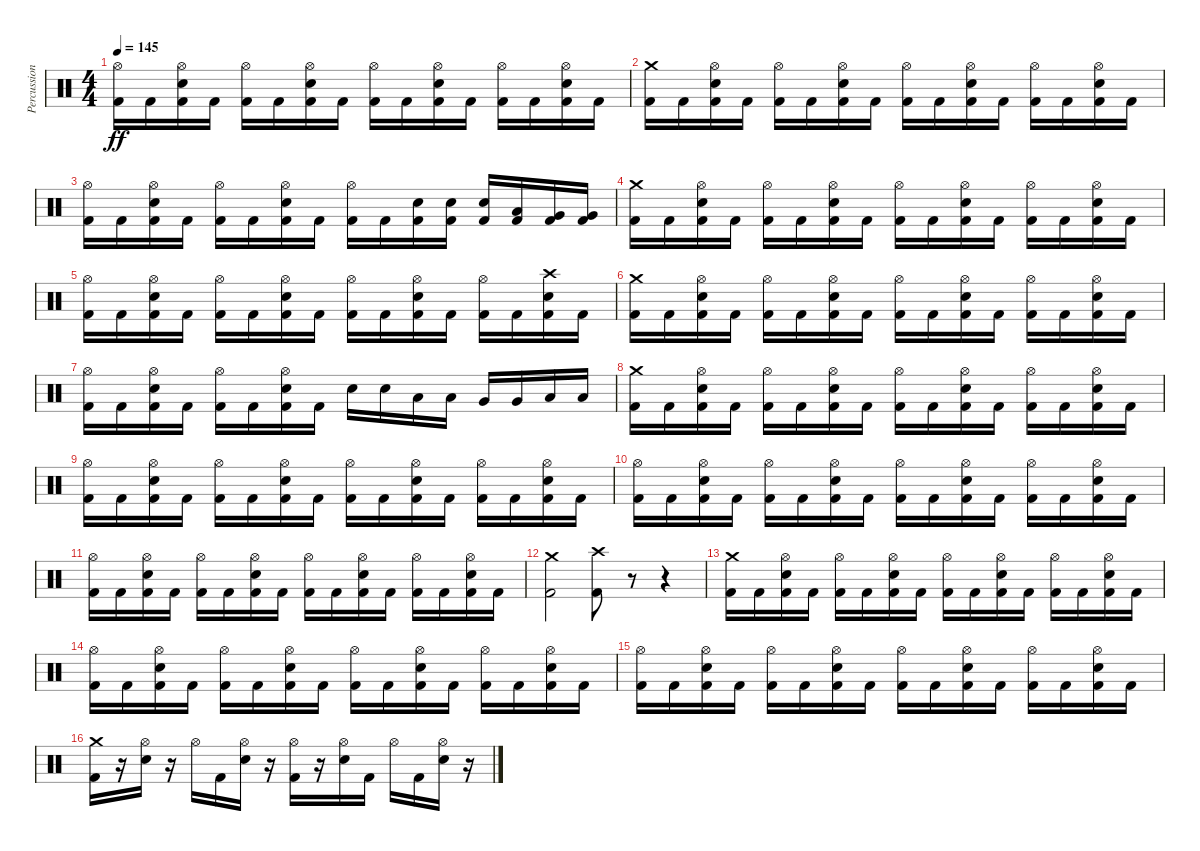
\track ("Percussion" "Percussion") {instrument percussion}
\staff {score}
\articulation defaults
\ts (4 4)
\tempo 145
\clef neutral
\ks c
("Hi-Hat (open)" "Kick (hit) 2").16{dy ff} "Kick (hit) 2".16 ("Electric Snare (hit)" "Hi-Hat (open)" "Kick (hit) 2").16 "Kick (hit) 2".16 ("Hi-Hat (open)" "Kick (hit) 2").16 "Kick (hit) 2".16 ("Electric Snare (hit)" "Hi-Hat (open)" "Kick (hit) 2").16 "Kick (hit) 2".16 ("Hi-Hat (open)" "Kick (hit) 2").16 "Kick (hit) 2".16 ("Electric Snare (hit)" "Hi-Hat (open)" "Kick (hit) 2").16 "Kick (hit) 2".16 ("Hi-Hat (open)" "Kick (hit) 2").16 "Kick (hit) 2".16 ("Electric Snare (hit)" "Hi-Hat (open)" "Kick (hit) 2").16 "Kick (hit) 2".16 |
("Crash medium (hit)" "Kick (hit) 2").16 "Kick (hit) 2".16 ("Electric Snare (hit)" "Hi-Hat (open)" "Kick (hit) 2").16 "Kick (hit) 2".16 ("Hi-Hat (open)" "Kick (hit) 2").16 "Kick (hit) 2".16 ("Electric Snare (hit)" "Hi-Hat (open)" "Kick (hit) 2").16 "Kick (hit) 2".16 ("Hi-Hat (open)" "Kick (hit) 2").16 "Kick (hit) 2".16 ("Electric Snare (hit)" "Hi-Hat (open)" "Kick (hit) 2").16 "Kick (hit) 2".16 ("Hi-Hat (open)" "Kick (hit) 2").16 "Kick (hit) 2".16 ("Electric Snare (hit)" "Hi-Hat (open)" "Kick (hit) 2").16 "Kick (hit) 2".16 |
("Hi-Hat (open)" "Kick (hit) 2").16 "Kick (hit) 2".16 ("Electric Snare (hit)" "Hi-Hat (open)" "Kick (hit) 2").16 "Kick (hit) 2".16 ("Hi-Hat (open)" "Kick (hit) 2").16 "Kick (hit) 2".16 ("Electric Snare (hit)" "Hi-Hat (open)" "Kick (hit) 2").16 "Kick (hit) 2".16 ("Hi-Hat (open)" "Kick (hit) 2").16 "Kick (hit) 2".16 ("Snare (hit) 2" "Kick (hit) 2").16 ("Snare (hit) 2" "Kick (hit) 2").16 ("Snare (hit) 2" "Kick (hit) 2").16 ("Low Tom (hit)" "Kick (hit) 2").16 ("Very Low Tom (hit)" "Kick (hit) 2").16 ("Very Low Tom (hit)" "Kick (hit) 2").16 |
("Crash medium (hit)" "Kick (hit) 2").16 "Kick (hit) 2".16 ("Electric Snare (hit)" "Hi-Hat (open)" "Kick (hit) 2").16 "Kick (hit) 2".16 ("Hi-Hat (open)" "Kick (hit) 2").16 "Kick (hit) 2".16 ("Electric Snare (hit)" "Hi-Hat (open)" "Kick (hit) 2").16 "Kick (hit) 2".16 ("Hi-Hat (open)" "Kick (hit) 2").16 "Kick (hit) 2".16 ("Electric Snare (hit)" "Hi-Hat (open)" "Kick (hit) 2").16 "Kick (hit) 2".16 ("Hi-Hat (open)" "Kick (hit) 2").16 "Kick (hit) 2".16 ("Electric Snare (hit)" "Hi-Hat (open)" "Kick (hit) 2").16 "Kick (hit) 2".16 |
("Hi-Hat (open)" "Kick (hit) 2").16 "Kick (hit) 2".16 ("Electric Snare (hit)" "Hi-Hat (open)" "Kick (hit) 2").16 "Kick (hit) 2".16 ("Hi-Hat (open)" "Kick (hit) 2").16 "Kick (hit) 2".16 ("Electric Snare (hit)" "Hi-Hat (open)" "Kick (hit) 2").16 "Kick (hit) 2".16 ("Hi-Hat (open)" "Kick (hit) 2").16 "Kick (hit) 2".16 ("Electric Snare (hit)" "Hi-Hat (open)" "Kick (hit) 2").16 "Kick (hit) 2".16 ("Hi-Hat (open)" "Kick (hit) 2").16 "Kick (hit) 2".16 ("Electric Snare (hit)" "Crash high (hit)" "Kick (hit) 2").16 "Kick (hit) 2".16 |
("Crash medium (hit)" "Kick (hit) 2").16 "Kick (hit) 2".16 ("Electric Snare (hit)" "Hi-Hat (open)" "Kick (hit) 2").16 "Kick (hit) 2".16 ("Hi-Hat (open)" "Kick (hit) 2").16 "Kick (hit) 2".16 ("Electric Snare (hit)" "Hi-Hat (open)" "Kick (hit) 2").16 "Kick (hit) 2".16 ("Hi-Hat (open)" "Kick (hit) 2").16 "Kick (hit) 2".16 ("Electric Snare (hit)" "Hi-Hat (open)" "Kick (hit) 2").16 "Kick (hit) 2".16 ("Hi-Hat (open)" "Kick (hit) 2").16 "Kick (hit) 2".16 ("Electric Snare (hit)" "Hi-Hat (open)" "Kick (hit) 2").16 "Kick (hit) 2".16 |
("Hi-Hat (open)" "Kick (hit) 2").16 "Kick (hit) 2".16 ("Electric Snare (hit)" "Hi-Hat (open)" "Kick (hit) 2").16 "Kick (hit) 2".16 ("Hi-Hat (open)" "Kick (hit) 2").16 "Kick (hit) 2".16 ("Electric Snare (hit)" "Hi-Hat (open)" "Kick (hit) 2").16 "Kick (hit) 2".16 "Snare (hit) 2".16 "Snare (hit) 2".16 "Low Tom (hit)".16 "Low Tom (hit)".16 "Very Low Tom (hit)".16 "Very Low Tom (hit)".16 "Low Floor Tom (hit)".16 "Low Floor Tom (hit)".16 |
("Crash medium (hit)" "Kick (hit) 2").16 "Kick (hit) 2".16 ("Electric Snare (hit)" "Hi-Hat (open)" "Kick (hit) 2").16 "Kick (hit) 2".16 ("Hi-Hat (open)" "Kick (hit) 2").16 "Kick (hit) 2".16 ("Electric Snare (hit)" "Hi-Hat (open)" "Kick (hit) 2").16 "Kick (hit) 2".16 ("Hi-Hat (open)" "Kick (hit) 2").16 "Kick (hit) 2".16 ("Electric Snare (hit)" "Hi-Hat (open)" "Kick (hit) 2").16 "Kick (hit) 2".16 ("Hi-Hat (open)" "Kick (hit) 2").16 "Kick (hit) 2".16 ("Electric Snare (hit)" "Hi-Hat (open)" "Kick (hit) 2").16 "Kick (hit) 2".16 |
("Hi-Hat (open)" "Kick (hit) 2").16 "Kick (hit) 2".16 ("Electric Snare (hit)" "Hi-Hat (open)" "Kick (hit) 2").16 "Kick (hit) 2".16 ("Hi-Hat (open)" "Kick (hit) 2").16 "Kick (hit) 2".16 ("Electric Snare (hit)" "Hi-Hat (open)" "Kick (hit) 2").16 "Kick (hit) 2".16 ("Hi-Hat (open)" "Kick (hit) 2").16 "Kick (hit) 2".16 ("Electric Snare (hit)" "Hi-Hat (open)" "Kick (hit) 2").16 "Kick (hit) 2".16 ("Hi-Hat (open)" "Kick (hit) 2").16 "Kick (hit) 2".16 ("Electric Snare (hit)" "Hi-Hat (open)" "Kick (hit) 2").16 "Kick (hit) 2".16 |
("Hi-Hat (open)" "Kick (hit) 2").16 "Kick (hit) 2".16 ("Electric Snare (hit)" "Hi-Hat (open)" "Kick (hit) 2").16 "Kick (hit) 2".16 ("Hi-Hat (open)" "Kick (hit) 2").16 "Kick (hit) 2".16 ("Electric Snare (hit)" "Hi-Hat (open)" "Kick (hit) 2").16 "Kick (hit) 2".16 ("Hi-Hat (open)" "Kick (hit) 2").16 "Kick (hit) 2".16 ("Electric Snare (hit)" "Hi-Hat (open)" "Kick (hit) 2").16 "Kick (hit) 2".16 ("Hi-Hat (open)" "Kick (hit) 2").16 "Kick (hit) 2".16 ("Electric Snare (hit)" "Hi-Hat (open)" "Kick (hit) 2").16 "Kick (hit) 2".16 |
("Hi-Hat (open)" "Kick (hit) 2").16 "Kick (hit) 2".16 ("Electric Snare (hit)" "Hi-Hat (open)" "Kick (hit) 2").16 "Kick (hit) 2".16 ("Hi-Hat (open)" "Kick (hit) 2").16 "Kick (hit) 2".16 ("Electric Snare (hit)" "Hi-Hat (open)" "Kick (hit) 2").16 "Kick (hit) 2".16 ("Hi-Hat (open)" "Kick (hit) 2").16 "Kick (hit) 2".16 ("Electric Snare (hit)" "Hi-Hat (open)" "Kick (hit) 2").16 "Kick (hit) 2".16 ("Hi-Hat (open)" "Kick (hit) 2").16 "Kick (hit) 2".16 ("Electric Snare (hit)" "Hi-Hat (open)" "Kick (hit) 2").16 "Kick (hit) 2".16 |
("Crash medium (hit)" "Kick (hit) 2").2 ("Crash high (hit)" "Kick (hit) 2").8 r.8 r.4 |
("Crash medium (hit)" "Kick (hit) 2").16 "Kick (hit) 2".16 ("Electric Snare (hit)" "Hi-Hat (open)" "Kick (hit) 2").16 "Kick (hit) 2".16 ("Hi-Hat (open)" "Kick (hit) 2").16 "Kick (hit) 2".16 ("Electric Snare (hit)" "Hi-Hat (open)" "Kick (hit) 2").16 "Kick (hit) 2".16 ("Hi-Hat (open)" "Kick (hit) 2").16 "Kick (hit) 2".16 ("Electric Snare (hit)" "Hi-Hat (open)" "Kick (hit) 2").16 "Kick (hit) 2".16 ("Hi-Hat (open)" "Kick (hit) 2").16 "Kick (hit) 2".16 ("Electric Snare (hit)" "Hi-Hat (open)" "Kick (hit) 2").16 "Kick (hit) 2".16 |
("Hi-Hat (open)" "Kick (hit) 2").16 "Kick (hit) 2".16 ("Electric Snare (hit)" "Hi-Hat (open)" "Kick (hit) 2").16 "Kick (hit) 2".16 ("Hi-Hat (open)" "Kick (hit) 2").16 "Kick (hit) 2".16 ("Electric Snare (hit)" "Hi-Hat (open)" "Kick (hit) 2").16 "Kick (hit) 2".16 ("Hi-Hat (open)" "Kick (hit) 2").16 "Kick (hit) 2".16 ("Electric Snare (hit)" "Hi-Hat (open)" "Kick (hit) 2").16 "Kick (hit) 2".16 ("Hi-Hat (open)" "Kick (hit) 2").16 "Kick (hit) 2".16 ("Electric Snare (hit)" "Hi-Hat (open)" "Kick (hit) 2").16 "Kick (hit) 2".16 |
("Hi-Hat (open)" "Kick (hit) 2").16 "Kick (hit) 2".16 ("Electric Snare (hit)" "Hi-Hat (open)" "Kick (hit) 2").16 "Kick (hit) 2".16 ("Hi-Hat (open)" "Kick (hit) 2").16 "Kick (hit) 2".16 ("Electric Snare (hit)" "Hi-Hat (open)" "Kick (hit) 2").16 "Kick (hit) 2".16 ("Hi-Hat (open)" "Kick (hit) 2").16 "Kick (hit) 2".16 ("Electric Snare (hit)" "Hi-Hat (open)" "Kick (hit) 2").16 "Kick (hit) 2".16 ("Hi-Hat (open)" "Kick (hit) 2").16 "Kick (hit) 2".16 ("Electric Snare (hit)" "Hi-Hat (open)" "Kick (hit) 2").16 "Kick (hit) 2".16 |
("Crash medium (hit)" "Kick (hit) 2").16 r.16 ("Hi-Hat (open)" "Electric Snare (hit)").16 r.16 "Hi-Hat (open)".16 "Kick (hit) 2".16 ("Hi-Hat (open)" "Electric Snare (hit)").16 r.16 ("Hi-Hat (open)" "Kick (hit) 2").16 r.16 ("Hi-Hat (open)" "Electric Snare (hit)").16 "Kick (hit) 2".16 "Hi-Hat (open)".16 "Kick (hit) 2".16 ("Hi-Hat (open)" "Electric Snare (hit)").16 r.16
